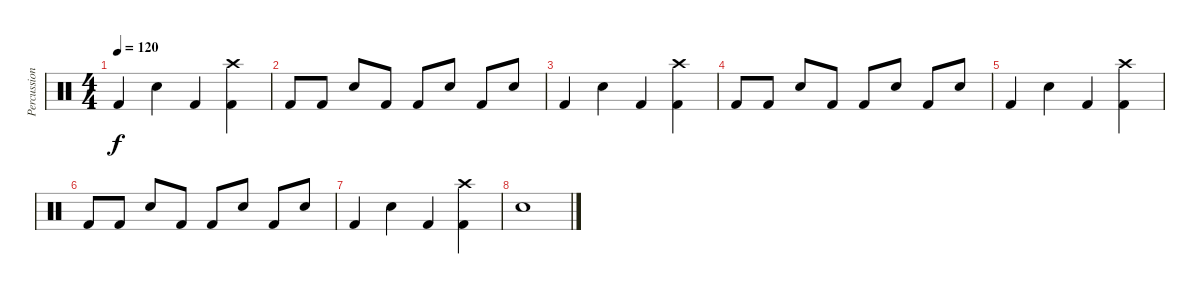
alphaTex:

\track ("Percussion" "Percussion") {instrument percussion}
\staff {score}
\articulation defaults
\ts (4 4)
\tempo 120
\clef neutral
\ks c "Kick (hit) 2".4{dy f} "Snare (hit) 2".4 "Kick (hit) 2".4
("Kick (hit) 2" "Crash high (hit)").4 |
"Kick (hit) 2".8 "Kick (hit) 2".8 "Snare (hit) 2".8 "Kick (hit) 2".8 "Kick (hit) 2".8 "Snare (hit) 2".8 "Kick (hit) 2".8 "Snare (hit) 2".8 |
"Kick (hit) 2".4 "Snare (hit) 2".4 "Kick (hit) 2".4 ("Kick (hit) 2" "Crash high (hit)").4 |
"Kick (hit) 2".8 "Kick (hit) 2".8 "Snare (hit) 2".8 "Kick (hit) 2".8 "Kick (hit) 2".8 "Snare (hit) 2".8 "Kick (hit) 2".8 "Snare (hit) 2".8 |
"Kick (hit) 2".4 "Snare (hit) 2".4 "Kick (hit) 2".4 ("Kick (hit) 2" "Crash high (hit)").4 |
"Kick (hit) 2".8 "Kick (hit) 2".8 "Snare (hit) 2".8 "Kick (hit) 2".8 "Kick (hit) 2".8 "Snare (hit) 2".8 "Kick (hit) 2".8 "Snare (hit) 2".8 |
"Kick (hit) 2".4 "Snare (hit) 2".4 "Kick (hit) 2".4 ("Kick (hit) 2" "Crash high (hit)").4 |
"Snare (hit) 2".1
